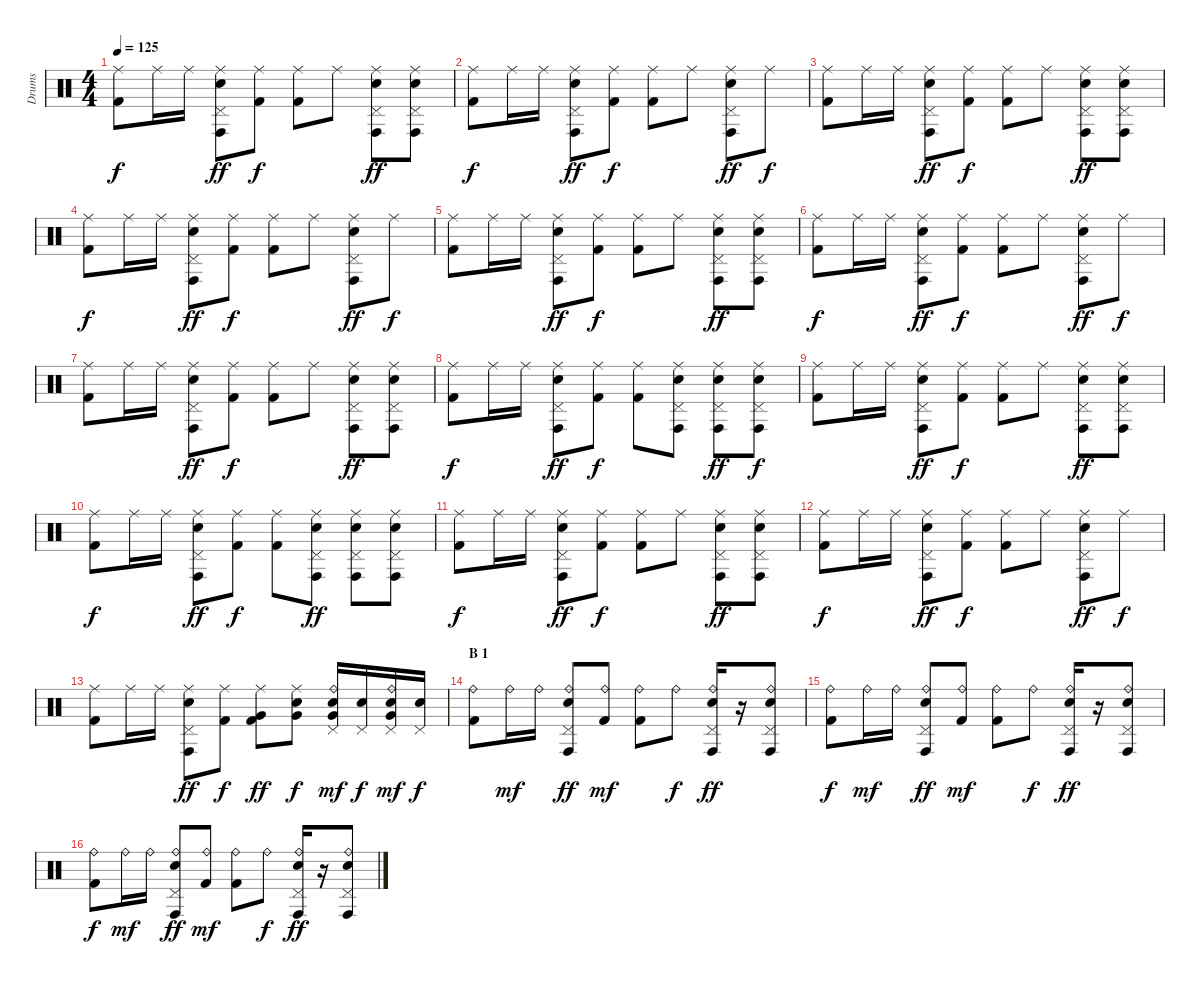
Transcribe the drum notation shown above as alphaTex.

\track ("Drums" "Drums") {instrument percussion}
\staff {score}
\articulation defaults
\ts (4 4)
\tempo 125
\clef neutral
\ks c
("Ride (middle)" "Kick (hit) 2").8{dy f} "Ride (middle)".16 "Ride (middle)".16 ("Ride (middle)" "Pedal Hi-Hat (hit)" "Conga high (hit)" "Electric Snare (hit)").8{dy ff} ("Ride (middle)" "Kick (hit) 2").8{dy f} ("Ride (middle)" "Kick (hit) 2").8 "Ride (middle)".8 ("Ride (middle)" "Pedal Hi-Hat (hit)" "Conga high (hit)" "Electric Snare (hit)").8{dy ff} ("Ride (middle)" "Pedal Hi-Hat (hit)" "Conga high (hit)" "Electric Snare (hit)").8 |
("Ride (middle)" "Kick (hit) 2").8{dy f} "Ride (middle)".16 "Ride (middle)".16 ("Ride (middle)" "Pedal Hi-Hat (hit)" "Conga high (hit)" "Electric Snare (hit)").8{dy ff} ("Ride (middle)" "Kick (hit) 2").8{dy f} ("Ride (middle)" "Kick (hit) 2").8 "Ride (middle)".8 ("Ride (middle)" "Pedal Hi-Hat (hit)" "Conga high (hit)" "Electric Snare (hit)").8{dy ff} "Ride (middle)".8{dy f} |
("Ride (middle)" "Kick (hit) 2").8 "Ride (middle)".16 "Ride (middle)".16 ("Ride (middle)" "Pedal Hi-Hat (hit)" "Conga high (hit)" "Electric Snare (hit)").8{dy ff} ("Ride (middle)" "Kick (hit) 2").8{dy f} ("Ride (middle)" "Kick (hit) 2").8 "Ride (middle)".8 ("Ride (middle)" "Pedal Hi-Hat (hit)" "Conga high (hit)" "Electric Snare (hit)").8{dy ff} ("Ride (middle)" "Pedal Hi-Hat (hit)" "Conga high (hit)" "Electric Snare (hit)").8 |
("Ride (middle)" "Kick (hit) 2").8{dy f} "Ride (middle)".16 "Ride (middle)".16 ("Ride (middle)" "Pedal Hi-Hat (hit)" "Conga high (hit)" "Electric Snare (hit)").8{dy ff} ("Ride (middle)" "Kick (hit) 2").8{dy f} ("Ride (middle)" "Kick (hit) 2").8 "Ride (middle)".8 ("Ride (middle)" "Pedal Hi-Hat (hit)" "Conga high (hit)" "Electric Snare (hit)").8{dy ff} "Ride (middle)".8{dy f} |
("Ride (middle)" "Kick (hit) 2").8 "Ride (middle)".16 "Ride (middle)".16 ("Ride (middle)" "Pedal Hi-Hat (hit)" "Conga high (hit)" "Electric Snare (hit)").8{dy ff} ("Ride (middle)" "Kick (hit) 2").8{dy f} ("Ride (middle)" "Kick (hit) 2").8 "Ride (middle)".8 ("Ride (middle)" "Pedal Hi-Hat (hit)" "Conga high (hit)" "Electric Snare (hit)").8{dy ff} ("Ride (middle)" "Pedal Hi-Hat (hit)" "Conga high (hit)" "Electric Snare (hit)").8 |
("Ride (middle)" "Kick (hit) 2").8{dy f} "Ride (middle)".16 "Ride (middle)".16 ("Ride (middle)" "Pedal Hi-Hat (hit)" "Conga high (hit)" "Electric Snare (hit)").8{dy ff} ("Ride (middle)" "Kick (hit) 2").8{dy f} ("Ride (middle)" "Kick (hit) 2").8 "Ride (middle)".8 ("Ride (middle)" "Pedal Hi-Hat (hit)" "Conga high (hit)" "Electric Snare (hit)").8{dy ff} "Ride (middle)".8{dy f} |
("Ride (middle)" "Kick (hit) 2").8 "Ride (middle)".16 "Ride (middle)".16 ("Ride (middle)" "Pedal Hi-Hat (hit)" "Conga high (hit)" "Electric Snare (hit)").8{dy ff} ("Ride (middle)" "Kick (hit) 2").8{dy f} ("Ride (middle)" "Kick (hit) 2").8 "Ride (middle)".8 ("Ride (middle)" "Pedal Hi-Hat (hit)" "Conga high (hit)" "Electric Snare (hit)").8{dy ff} ("Ride (middle)" "Pedal Hi-Hat (hit)" "Conga high (hit)" "Electric Snare (hit)").8 |
("Ride (middle)" "Kick (hit) 2").8{dy f} "Ride (middle)".16 "Ride (middle)".16 ("Ride (middle)" "Pedal Hi-Hat (hit)" "Conga high (hit)" "Electric Snare (hit)").8{dy ff} ("Ride (middle)" "Kick (hit) 2").8{dy f} ("Ride (middle)" "Kick (hit) 2").8 ("Ride (middle)" "Pedal Hi-Hat (hit)" "Conga high (hit)" "Electric Snare (hit)").8 ("Ride (middle)" "Pedal Hi-Hat (hit)" "Conga high (hit)" "Electric Snare (hit)").8{dy ff} ("Ride (middle)" "Pedal Hi-Hat (hit)" "Conga high (hit)" "Electric Snare (hit)").8{dy f} |
("Ride (middle)" "Kick (hit) 2").8 "Ride (middle)".16 "Ride (middle)".16 ("Ride (middle)" "Pedal Hi-Hat (hit)" "Conga high (hit)" "Electric Snare (hit)").8{dy ff} ("Ride (middle)" "Kick (hit) 2").8{dy f} ("Ride (middle)" "Kick (hit) 2").8 "Ride (middle)".8 ("Ride (middle)" "Pedal Hi-Hat (hit)" "Conga high (hit)" "Electric Snare (hit)").8{dy ff} ("Ride (middle)" "Pedal Hi-Hat (hit)" "Conga high (hit)" "Electric Snare (hit)").8 |
("Ride (middle)" "Kick (hit) 2").8{dy f} "Ride (middle)".16 "Ride (middle)".16 ("Ride (middle)" "Pedal Hi-Hat (hit)" "Conga high (hit)" "Electric Snare (hit)").8{dy ff} ("Ride (middle)" "Kick (hit) 2").8{dy f} ("Ride (middle)" "Kick (hit) 2").8 ("Ride (middle)" "Pedal Hi-Hat (hit)" "Conga high (hit)" "Electric Snare (hit)").8{dy ff} ("Ride (middle)" "Pedal Hi-Hat (hit)" "Conga high (hit)" "Electric Snare (hit)").8 ("Ride (middle)" "Pedal Hi-Hat (hit)" "Conga high (hit)" "Electric Snare (hit)").8 |
("Ride (middle)" "Kick (hit) 2").8{dy f} "Ride (middle)".16 "Ride (middle)".16 ("Ride (middle)" "Pedal Hi-Hat (hit)" "Conga high (hit)" "Electric Snare (hit)").8{dy ff} ("Ride (middle)" "Kick (hit) 2").8{dy f} ("Ride (middle)" "Kick (hit) 2").8 "Ride (middle)".8 ("Ride (middle)" "Pedal Hi-Hat (hit)" "Conga high (hit)" "Electric Snare (hit)").8{dy ff} ("Ride (middle)" "Pedal Hi-Hat (hit)" "Conga high (hit)" "Electric Snare (hit)").8 |
("Ride (middle)" "Kick (hit) 2").8{dy f} "Ride (middle)".16 "Ride (middle)".16 ("Ride (middle)" "Pedal Hi-Hat (hit)" "Conga high (hit)" "Electric Snare (hit)").8{dy ff} ("Ride (middle)" "Kick (hit) 2").8{dy f} ("Ride (middle)" "Kick (hit) 2").8 "Ride (middle)".8 ("Ride (middle)" "Pedal Hi-Hat (hit)" "Conga high (hit)" "Electric Snare (hit)").8{dy ff} "Ride (middle)".8{dy f} |
("Ride (middle)" "Kick (hit) 2").8 "Ride (middle)".16 "Ride (middle)".16 ("Ride (middle)" "Pedal Hi-Hat (hit)" "Conga high (hit)" "Electric Snare (hit)").8{dy ff} ("Ride (middle)" "Kick (hit) 2").8{dy f} ("Ride (middle)" "Very Low Tom (hit)" "Kick (hit) 2").8{dy ff} ("Ride (middle)" "Very Low Tom (hit)" "Electric Snare (hit)").8{dy f} ("Ride (bell)" "Pedal Hi-Hat (hit)" "Very Low Tom (hit)" "Electric Snare (hit)").16{dy mf} ("Pedal Hi-Hat (hit)" "Electric Snare (hit)").16{dy f} ("Ride (bell)" "Pedal Hi-Hat (hit)" "Very Low Tom (hit)" "Electric Snare (hit)").16{dy mf} ("Pedal Hi-Hat (hit)" "Electric Snare (hit)").16{dy f} |
\section ("" "B 1")
("Ride (bell)" "Kick (hit) 2").8 "Ride (bell)".16{dy mf} "Ride (bell)".16 ("Ride (bell)" "Pedal Hi-Hat (hit)" "Conga high (hit)" "Electric Snare (hit)").8{dy ff} ("Ride (bell)" "Kick (hit) 2").8{dy mf} ("Ride (bell)" "Kick (hit) 2").8 "Ride (bell)".8{dy f} ("Ride (bell)" "Pedal Hi-Hat (hit)" "Conga high (hit)" "Electric Snare (hit)").16{dy ff} r.16 ("Ride (bell)" "Pedal Hi-Hat (hit)" "Conga high (hit)" "Electric Snare (hit)").8 |
("Ride (bell)" "Kick (hit) 2").8{dy f} "Ride (bell)".16{dy mf} "Ride (bell)".16 ("Ride (bell)" "Pedal Hi-Hat (hit)" "Conga high (hit)" "Electric Snare (hit)").8{dy ff} ("Ride (bell)" "Kick (hit) 2").8{dy mf} ("Ride (bell)" "Kick (hit) 2").8 "Ride (bell)".8{dy f} ("Ride (bell)" "Pedal Hi-Hat (hit)" "Conga high (hit)" "Electric Snare (hit)").16{dy ff} r.16 ("Ride (bell)" "Pedal Hi-Hat (hit)" "Conga high (hit)" "Electric Snare (hit)").8 |
("Ride (bell)" "Kick (hit) 2").8{dy f} "Ride (bell)".16{dy mf} "Ride (bell)".16 ("Ride (bell)" "Pedal Hi-Hat (hit)" "Conga high (hit)" "Electric Snare (hit)").8{dy ff} ("Ride (bell)" "Kick (hit) 2").8{dy mf} ("Ride (bell)" "Kick (hit) 2").8 "Ride (bell)".8{dy f} ("Ride (bell)" "Pedal Hi-Hat (hit)" "Conga high (hit)" "Electric Snare (hit)").16{dy ff} r.16 ("Ride (bell)" "Pedal Hi-Hat (hit)" "Conga high (hit)" "Electric Snare (hit)").8
